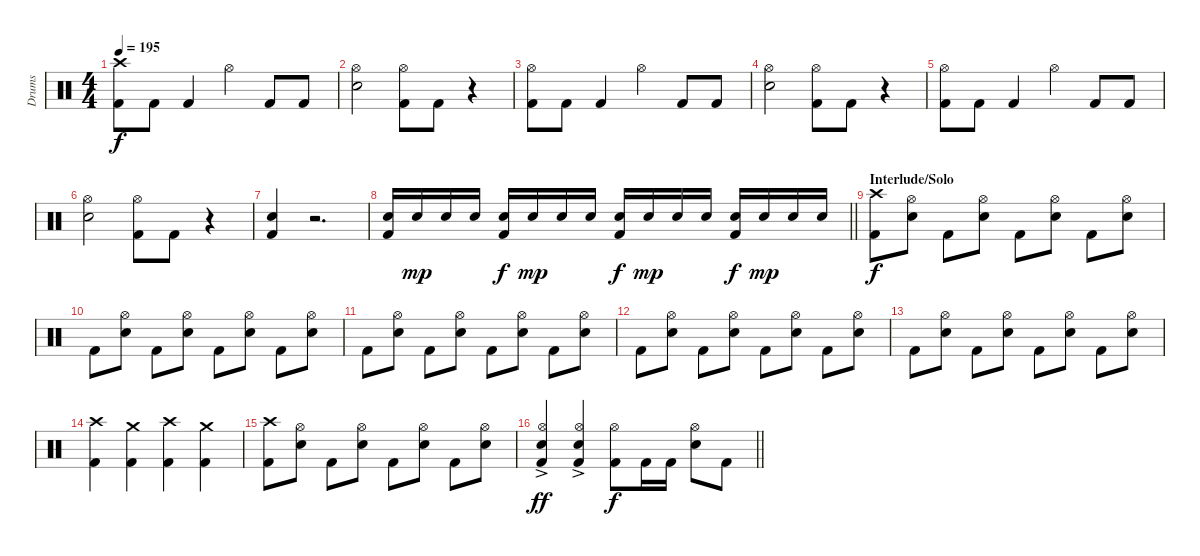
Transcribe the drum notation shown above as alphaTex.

\track ("Drums" "Drums") {instrument percussion}
\staff {score}
\articulation defaults
\ts (4 4)
\tempo 195
\clef neutral
\ks c
("Crash high (hit)" "Kick (hit) 2").8{dy f} "Kick (hit) 2".8 "Kick (hit) 2".4 "Hi-Hat (open)".4 "Kick (hit) 2".8 "Kick (hit) 2".8 |
("Hi-Hat (open)" "Snare (hit) 2").2 ("Hi-Hat (open)" "Kick (hit) 2").8 "Kick (hit) 2".8 r.4 |
("Hi-Hat (open)" "Kick (hit) 2").8 "Kick (hit) 2".8 "Kick (hit) 2".4 "Hi-Hat (open)".4 "Kick (hit) 2".8 "Kick (hit) 2".8 |
("Hi-Hat (open)" "Snare (hit) 2").2 ("Hi-Hat (open)" "Kick (hit) 2").8 "Kick (hit) 2".8 r.4 |
("Hi-Hat (open)" "Kick (hit) 2").8 "Kick (hit) 2".8 "Kick (hit) 2".4 "Hi-Hat (open)".4 "Kick (hit) 2".8 "Kick (hit) 2".8 |
("Hi-Hat (open)" "Snare (hit) 2").2 ("Hi-Hat (open)" "Kick (hit) 2").8 "Kick (hit) 2".8 r.4 |
("Snare (hit) 2" "Kick (hit) 2").4 r.2{d} |
\barLineRight lightlight
("Snare (hit) 2" "Kick (hit) 2").16 "Snare (hit) 2".16{dy mp} "Snare (hit) 2".16 "Snare (hit) 2".16 ("Snare (hit) 2" "Kick (hit) 2").16{dy f} "Snare (hit) 2".16{dy mp} "Snare (hit) 2".16 "Snare (hit) 2".16 ("Snare (hit) 2" "Kick (hit) 2").16{dy f} "Snare (hit) 2".16{dy mp} "Snare (hit) 2".16 "Snare (hit) 2".16 ("Snare (hit) 2" "Kick (hit) 2").16{dy f} "Snare (hit) 2".16{dy mp} "Snare (hit) 2".16 "Snare (hit) 2".16 |
\section ("" "Interlude/Solo")
("Crash high (hit)" "Kick (hit) 2").8{dy f} ("Hi-Hat (open)" "Snare (hit) 2").8 "Kick (hit) 2".8 ("Hi-Hat (open)" "Snare (hit) 2").8 "Kick (hit) 2".8 ("Hi-Hat (open)" "Snare (hit) 2").8 "Kick (hit) 2".8 ("Hi-Hat (open)" "Snare (hit) 2").8 |
"Kick (hit) 2".8 ("Hi-Hat (open)" "Snare (hit) 2").8 "Kick (hit) 2".8 ("Hi-Hat (open)" "Snare (hit) 2").8 "Kick (hit) 2".8 ("Hi-Hat (open)" "Snare (hit) 2").8 "Kick (hit) 2".8 ("Hi-Hat (open)" "Snare (hit) 2").8 |
"Kick (hit) 2".8 ("Hi-Hat (open)" "Snare (hit) 2").8 "Kick (hit) 2".8 ("Hi-Hat (open)" "Snare (hit) 2").8 "Kick (hit) 2".8 ("Hi-Hat (open)" "Snare (hit) 2").8 "Kick (hit) 2".8 ("Hi-Hat (open)" "Snare (hit) 2").8 |
"Kick (hit) 2".8 ("Hi-Hat (open)" "Snare (hit) 2").8 "Kick (hit) 2".8 ("Hi-Hat (open)" "Snare (hit) 2").8 "Kick (hit) 2".8 ("Hi-Hat (open)" "Snare (hit) 2").8 "Kick (hit) 2".8 ("Hi-Hat (open)" "Snare (hit) 2").8 |
"Kick (hit) 2".8 ("Hi-Hat (open)" "Snare (hit) 2").8 "Kick (hit) 2".8 ("Hi-Hat (open)" "Snare (hit) 2").8 "Kick (hit) 2".8 ("Hi-Hat (open)" "Snare (hit) 2").8 "Kick (hit) 2".8 ("Hi-Hat (open)" "Snare (hit) 2").8 |
("Crash high (hit)" "Kick (hit) 2").4 ("Crash medium (hit)" "Kick (hit) 2").4 ("Crash high (hit)" "Kick (hit) 2").4 ("Crash medium (hit)" "Kick (hit) 2").4 |
("Crash high (hit)" "Kick (hit) 2").8 ("Hi-Hat (open)" "Snare (hit) 2").8 "Kick (hit) 2".8 ("Hi-Hat (open)" "Snare (hit) 2").8 "Kick (hit) 2".8 ("Hi-Hat (open)" "Snare (hit) 2").8 "Kick (hit) 2".8 ("Hi-Hat (open)" "Snare (hit) 2").8 |
\barLineRight lightlight
("Hi-Hat (open)" "Snare (hit) 2"{ac} "Kick (hit) 2").4{dy ff} ("Hi-Hat (open)" "Snare (hit) 2"{ac} "Kick (hit) 2").4 ("Hi-Hat (open)" "Kick (hit) 2").8{dy f} "Kick (hit) 2".16 "Kick (hit) 2".16 ("Hi-Hat (open)" "Snare (hit) 2").8 "Kick (hit) 2".8
